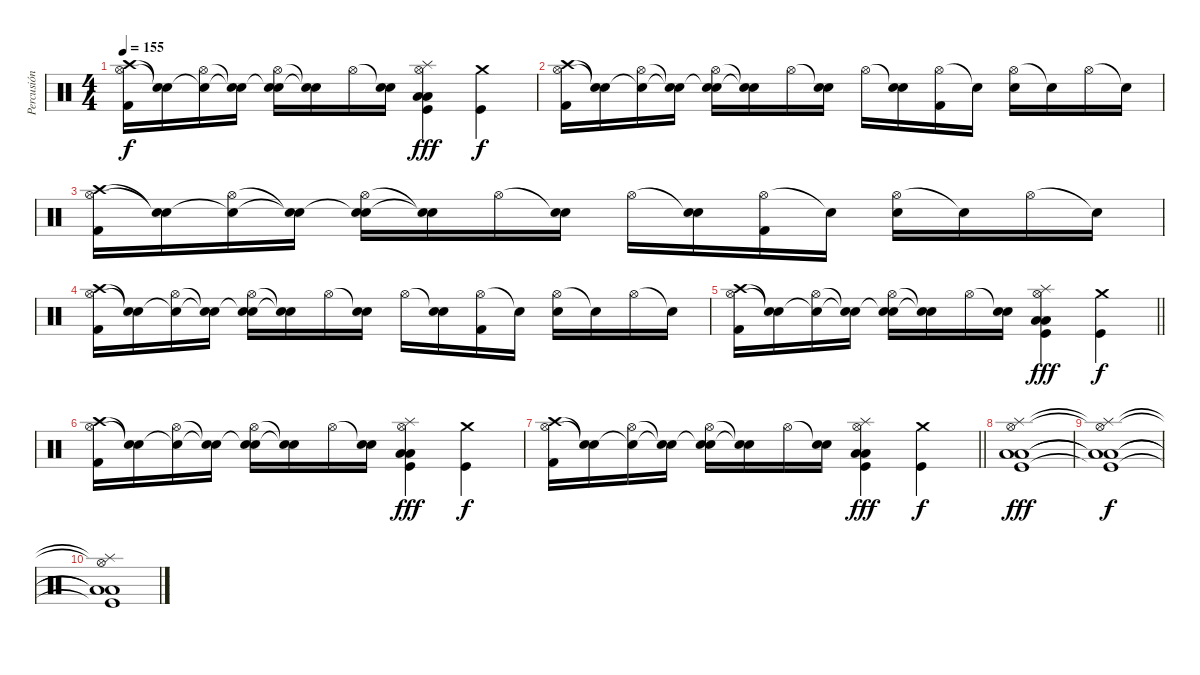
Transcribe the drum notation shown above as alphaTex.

\track ("Percusión (Erik)" "Percusión ") {instrument percussion}
\staff {score}
\articulation defaults
\ts (4 4)
\tempo 155
\clef neutral
\ks c
("Crash high (hit)" "Hi-Hat (open)" "Kick (hit) 2").16{dy f volume 14} ("Snare (hit)"{t} "Snare (hit)"{t}).16 ("Snare (hit)"{t} "Hi-Hat (open)").16 ("Snare (hit)"{t} "Snare (hit)"{t}).16 ("Snare (hit)"{t} "Hi-Hat (open)" "Electric Snare (hit)").16 ("Snare (hit)"{t} "Snare (hit)"{t}).16 "Hi-Hat (open)".16 ("Snare (hit)"{t} "Electric Snare (hit)").16 ("Hi-Hat (open)" "Low Floor Tom (hit)" "Low Tom (hit)" "Kick (hit)" "Splash (hit)").4{dy fff} ("Crash medium (hit)" "Kick (hit)").4{dy f} |
("Crash high (hit)" "Hi-Hat (open)" "Kick (hit) 2").16{volume 14} ("Snare (hit)"{t} "Snare (hit)"{t}).16 ("Snare (hit)"{t} "Hi-Hat (open)").16 ("Snare (hit)"{t} "Snare (hit)"{t}).16 ("Snare (hit)"{t} "Hi-Hat (open)" "Electric Snare (hit)").16 ("Snare (hit)"{t} "Snare (hit)"{t}).16 "Hi-Hat (open)".16 ("Snare (hit)"{t} "Electric Snare (hit)").16 "Hi-Hat (open)".16 ("Snare (hit)"{t} "Electric Snare (hit)").16 ("Hi-Hat (open)" "Kick (hit) 2").16 "Snare (hit)"{t}.16 ("Hi-Hat (open)" "Electric Snare (hit)").16 "Snare (hit)"{t}.16 "Hi-Hat (open)".16 "Snare (hit)"{t}.16 |
("Crash high (hit)" "Hi-Hat (open)" "Kick (hit) 2").16{volume 14} ("Snare (hit)"{t} "Snare (hit)"{t}).16 ("Snare (hit)"{t} "Hi-Hat (open)").16 ("Snare (hit)"{t} "Snare (hit)"{t}).16 ("Snare (hit)"{t} "Hi-Hat (open)" "Electric Snare (hit)").16 ("Snare (hit)"{t} "Snare (hit)"{t}).16 "Hi-Hat (open)".16 ("Snare (hit)"{t} "Electric Snare (hit)").16 "Hi-Hat (open)".16 ("Snare (hit)"{t} "Electric Snare (hit)").16 ("Hi-Hat (open)" "Kick (hit) 2").16 "Snare (hit)"{t}.16 ("Hi-Hat (open)" "Electric Snare (hit)").16 "Snare (hit)"{t}.16 "Hi-Hat (open)".16 "Snare (hit)"{t}.16 |
("Crash high (hit)" "Hi-Hat (open)" "Kick (hit) 2").16{volume 14} ("Snare (hit)"{t} "Snare (hit)"{t}).16 ("Snare (hit)"{t} "Hi-Hat (open)").16 ("Snare (hit)"{t} "Snare (hit)"{t}).16 ("Snare (hit)"{t} "Hi-Hat (open)" "Electric Snare (hit)").16 ("Snare (hit)"{t} "Snare (hit)"{t}).16 "Hi-Hat (open)".16 ("Snare (hit)"{t} "Electric Snare (hit)").16 "Hi-Hat (open)".16 ("Snare (hit)"{t} "Electric Snare (hit)").16 ("Hi-Hat (open)" "Kick (hit) 2").16 "Snare (hit)"{t}.16 ("Hi-Hat (open)" "Electric Snare (hit)").16 "Snare (hit)"{t}.16 "Hi-Hat (open)".16 "Snare (hit)"{t}.16 |
\barLineRight lightlight
("Crash high (hit)" "Hi-Hat (open)" "Kick (hit) 2").16{volume 14} ("Snare (hit)"{t} "Snare (hit)"{t}).16 ("Snare (hit)"{t} "Hi-Hat (open)").16 ("Snare (hit)"{t} "Snare (hit)"{t}).16 ("Snare (hit)"{t} "Hi-Hat (open)" "Electric Snare (hit)").16 ("Snare (hit)"{t} "Snare (hit)"{t}).16 "Hi-Hat (open)".16 ("Snare (hit)"{t} "Electric Snare (hit)").16 ("Hi-Hat (open)" "Low Floor Tom (hit)" "Low Tom (hit)" "Kick (hit)" "Splash (hit)").4{dy fff} ("Crash medium (hit)" "Kick (hit)").4{dy f} |
("Crash high (hit)" "Hi-Hat (open)" "Kick (hit) 2").16{volume 14} ("Snare (hit)"{t} "Snare (hit)"{t}).16 ("Snare (hit)"{t} "Hi-Hat (open)").16 ("Snare (hit)"{t} "Snare (hit)"{t}).16 ("Snare (hit)"{t} "Hi-Hat (open)" "Electric Snare (hit)").16 ("Snare (hit)"{t} "Snare (hit)"{t}).16 "Hi-Hat (open)".16 ("Snare (hit)"{t} "Electric Snare (hit)").16 ("Hi-Hat (open)" "Low Floor Tom (hit)" "Low Tom (hit)" "Kick (hit)" "Splash (hit)").4{dy fff} ("Crash medium (hit)" "Kick (hit)").4{dy f} |
\barLineRight lightlight
("Crash high (hit)" "Hi-Hat (open)" "Kick (hit) 2").16{volume 14} ("Snare (hit)"{t} "Snare (hit)"{t}).16 ("Snare (hit)"{t} "Hi-Hat (open)").16 ("Snare (hit)"{t} "Snare (hit)"{t}).16 ("Snare (hit)"{t} "Hi-Hat (open)" "Electric Snare (hit)").16 ("Snare (hit)"{t} "Snare (hit)"{t}).16 "Hi-Hat (open)".16 ("Snare (hit)"{t} "Electric Snare (hit)").16 ("Hi-Hat (open)" "Low Floor Tom (hit)" "Low Tom (hit)" "Kick (hit)" "Splash (hit)").4{dy fff} ("Crash medium (hit)" "Kick (hit)").4{dy f} |
("Hi-Hat (open)" "Low Floor Tom (hit)" "Low Tom (hit)" "Kick (hit)" "Splash (hit)").1{dy fff} |
("Hi-Hat (open)"{t} "Low Floor Tom (hit)"{t} "Low Tom (hit)"{t} "Kick (hit)"{t} "Splash (hit)"{t}).1{dy f} |
("Hi-Hat (open)"{t} "Low Floor Tom (hit)"{t} "Low Tom (hit)"{t} "Kick (hit)"{t} "Splash (hit)"{t}).1
